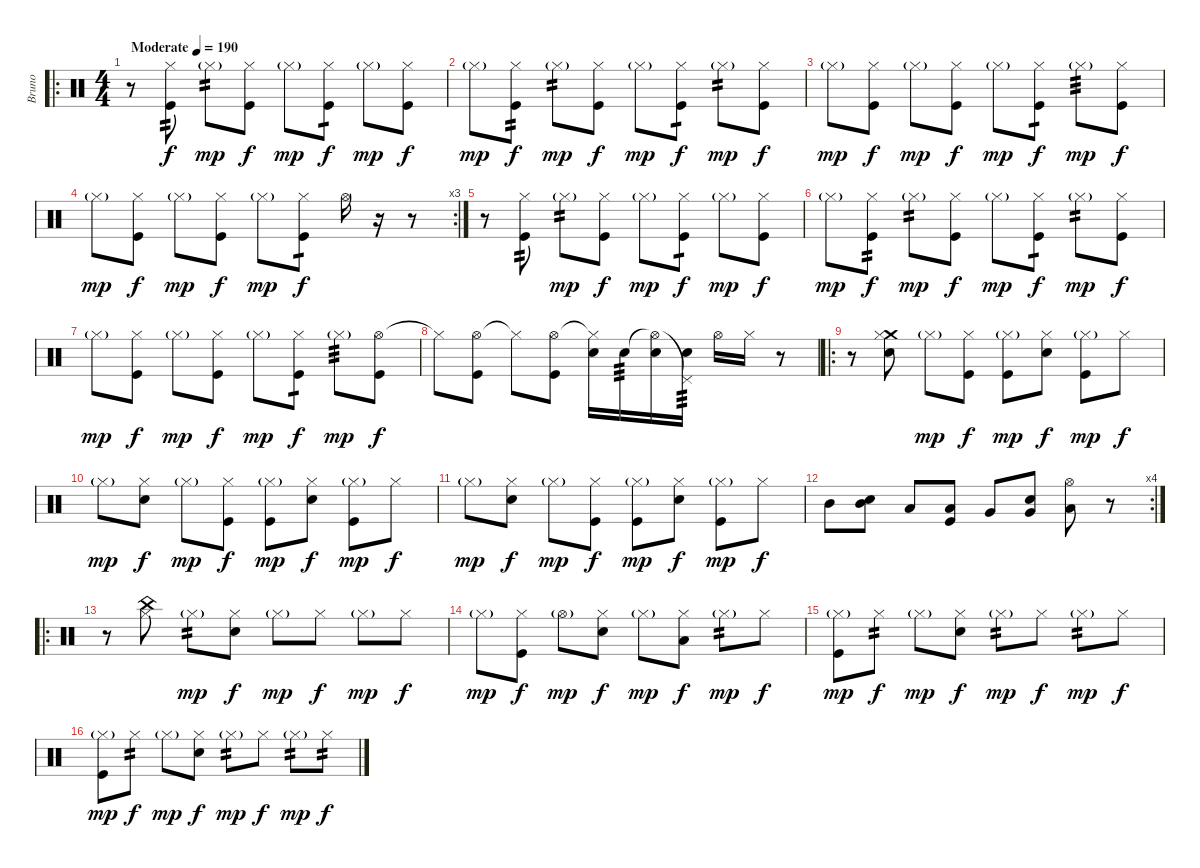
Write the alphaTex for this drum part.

\track ("Bruno" "Bruno") {instrument percussion}
\staff {score}
\articulation defaults
\ro
\ts (4 4)
\tempo (190 "Moderate")
\clef neutral
\ks c
r.8{dy f} ("Hi-Hat (closed)" "Kick (hit)").8{tp 2} "Hi-Hat (closed)"{g}.8{tp 2 dy mp} ("Hi-Hat (closed)" "Kick (hit)").8{dy f} "Hi-Hat (closed)"{g}.8{dy mp} ("Hi-Hat (closed)" "Kick (hit)").8{tp 1 dy f} "Hi-Hat (closed)"{g}.8{dy mp} ("Hi-Hat (closed)" "Kick (hit)").8{dy f} |
"Hi-Hat (closed)"{g}.8{dy mp} ("Hi-Hat (closed)" "Kick (hit)").8{tp 2 dy f} "Hi-Hat (closed)"{g}.8{tp 2 dy mp} ("Hi-Hat (closed)" "Kick (hit)").8{dy f} "Hi-Hat (closed)"{g}.8{dy mp} ("Hi-Hat (closed)" "Kick (hit)").8{tp 1 dy f} "Hi-Hat (closed)"{g}.8{tp 2 dy mp} ("Hi-Hat (closed)" "Kick (hit)").8{dy f} |
"Hi-Hat (closed)"{g}.8{dy mp} ("Hi-Hat (closed)" "Kick (hit)").8{dy f} "Hi-Hat (closed)"{g}.8{dy mp} ("Hi-Hat (closed)" "Kick (hit)").8{dy f} "Hi-Hat (closed)"{g}.8{dy mp} ("Hi-Hat (closed)" "Kick (hit)").8{tp 1 dy f} "Hi-Hat (closed)"{g}.8{tp 3 dy mp} ("Hi-Hat (closed)" "Kick (hit)").8{dy f} |
\rc 3 "Hi-Hat (closed)"{g}.8{dy mp}
("Hi-Hat (closed)" "Kick (hit)").8{dy f} "Hi-Hat (closed)"{g}.8{dy mp} ("Hi-Hat (closed)" "Kick (hit)").8{dy f} "Hi-Hat (closed)"{g}.8{dy mp} ("Hi-Hat (closed)" "Kick (hit)").8{tp 1 dy f} "Hi-Hat (open)".16 r.16 r.8 |
r.8 ("Hi-Hat (closed)" "Kick (hit)").8{tp 2} "Hi-Hat (closed)"{g}.8{tp 2 dy mp} ("Hi-Hat (closed)" "Kick (hit)").8{dy f} "Hi-Hat (closed)"{g}.8{dy mp} ("Hi-Hat (closed)" "Kick (hit)").8{tp 1 dy f} "Hi-Hat (closed)"{g}.8{dy mp} ("Hi-Hat (closed)" "Kick (hit)").8{dy f} |
"Hi-Hat (closed)"{g}.8{dy mp} ("Hi-Hat (closed)" "Kick (hit)").8{tp 2 dy f} "Hi-Hat (closed)"{g}.8{tp 2 dy mp} ("Hi-Hat (closed)" "Kick (hit)").8{dy f} "Hi-Hat (closed)"{g}.8{dy mp} ("Hi-Hat (closed)" "Kick (hit)").8{tp 1 dy f} "Hi-Hat (closed)"{g}.8{tp 2 dy mp} ("Hi-Hat (closed)" "Kick (hit)").8{dy f} |
"Hi-Hat (closed)"{g}.8{dy mp} ("Hi-Hat (closed)" "Kick (hit)").8{dy f} "Hi-Hat (closed)"{g}.8{dy mp} ("Hi-Hat (closed)" "Kick (hit)").8{dy f} "Hi-Hat (closed)"{g}.8{dy mp} ("Hi-Hat (closed)" "Kick (hit)").8{tp 1 dy f} "Hi-Hat (closed)"{g}.8{tp 3 dy mp} ("Hi-Hat (open)" "Kick (hit)").8{dy f} |
"Hi-Hat (closed)"{t}.8 ("Hi-Hat (open)" "Kick (hit)").8 "Hi-Hat (closed)"{t}.8 ("Hi-Hat (open)" "Kick (hit)").8 ("Hi-Hat (closed)"{t} "Electric Snare (hit)").16 "Electric Snare (hit)".16{tp 3} ("Hi-Hat (open)"{t} "Electric Snare (hit)").16 ("Pedal Hi-Hat (hit)"{t} "Electric Snare (hit)").16{tp 3} "Hi-Hat (open)".16 "Hi-Hat (closed)".16 r.8 |
\ro
r.8 ("Crash medium (hit)" "Hi-Hat (closed)" "Electric Snare (hit)").8 "Hi-Hat (closed)"{g}.8{dy mp} ("Hi-Hat (closed)" "Kick (hit)").8{dy f} ("Hi-Hat (closed)"{g} "Kick (hit)").8{dy mp} ("Hi-Hat (closed)" "Electric Snare (hit)").8{dy f} ("Hi-Hat (closed)"{g} "Kick (hit)").8{dy mp} "Hi-Hat (closed)".8{dy f} |
"Hi-Hat (closed)"{g}.8{dy mp} ("Hi-Hat (closed)" "Electric Snare (hit)").8{dy f} "Hi-Hat (closed)"{g}.8{dy mp} ("Hi-Hat (closed)" "Kick (hit)").8{dy f} ("Hi-Hat (closed)"{g} "Kick (hit)").8{dy mp} ("Hi-Hat (closed)" "Electric Snare (hit)").8{dy f} ("Hi-Hat (closed)"{g} "Kick (hit)").8{dy mp} "Hi-Hat (closed)".8{dy f} |
"Hi-Hat (closed)"{g}.8{dy mp} ("Hi-Hat (closed)" "Electric Snare (hit)").8{dy f} "Hi-Hat (closed)"{g}.8{dy mp} ("Hi-Hat (closed)" "Kick (hit)").8{dy f} ("Hi-Hat (closed)"{g} "Kick (hit)").8{dy mp} ("Hi-Hat (closed)" "Electric Snare (hit)").8{dy f} ("Hi-Hat (closed)"{g} "Kick (hit)").8{dy mp} "Hi-Hat (closed)".8{dy f} |
\rc 4 "Mid Tom (hit)".8
("Mid Tom (hit)" "Electric Snare (hit)").8 "Low Tom (hit)".8 ("Low Tom (hit)" "Kick (hit)").8 "Very Low Tom (hit)".8 ("Very Low Tom (hit)" "Electric Snare (hit)").8 ("Low Floor Tom (hit)" "Hi-Hat (open)").8 r.8 |
\ro
r.8 ("China (hit)" "Hi-Hat (closed)").8 "Hi-Hat (closed)"{g}.8{tp 2 dy mp} ("Hi-Hat (closed)" "Electric Snare (hit)").8{dy f} "Hi-Hat (closed)"{g}.8{dy mp} "Hi-Hat (closed)".8{dy f} "Hi-Hat (closed)"{g}.8{dy mp} "Hi-Hat (closed)".8{dy f} |
"Hi-Hat (closed)"{g}.8{dy mp} ("Hi-Hat (closed)" "Kick (hit)").8{dy f} "Hi-Hat (open)"{g}.8{dy mp} ("Hi-Hat (closed)" "Electric Snare (hit)").8{dy f} "Hi-Hat (closed)"{g}.8{dy mp} ("Low Tom (hit)" "Hi-Hat (closed)").8{dy f} "Hi-Hat (closed)"{g}.8{tp 2 dy mp} "Hi-Hat (closed)".8{dy f} |
("Hi-Hat (closed)"{g} "Kick (hit)").8{dy mp} "Hi-Hat (closed)".8{tp 2 dy f} "Hi-Hat (closed)"{g}.8{dy mp} ("Hi-Hat (closed)" "Electric Snare (hit)").8{dy f} "Hi-Hat (closed)"{g}.8{tp 2 dy mp} "Hi-Hat (closed)".8{dy f} "Hi-Hat (closed)"{g}.8{tp 2 dy mp} "Hi-Hat (closed)".8{dy f} |
("Hi-Hat (closed)"{g} "Kick (hit)").8{dy mp} "Hi-Hat (closed)".8{tp 2 dy f} "Hi-Hat (closed)"{g}.8{dy mp} ("Hi-Hat (closed)" "Electric Snare (hit)").8{dy f} "Hi-Hat (closed)"{g}.8{tp 2 dy mp} "Hi-Hat (closed)".8{dy f} "Hi-Hat (closed)"{g}.8{tp 2 dy mp} "Hi-Hat (closed)".8{tp 2 dy f}
